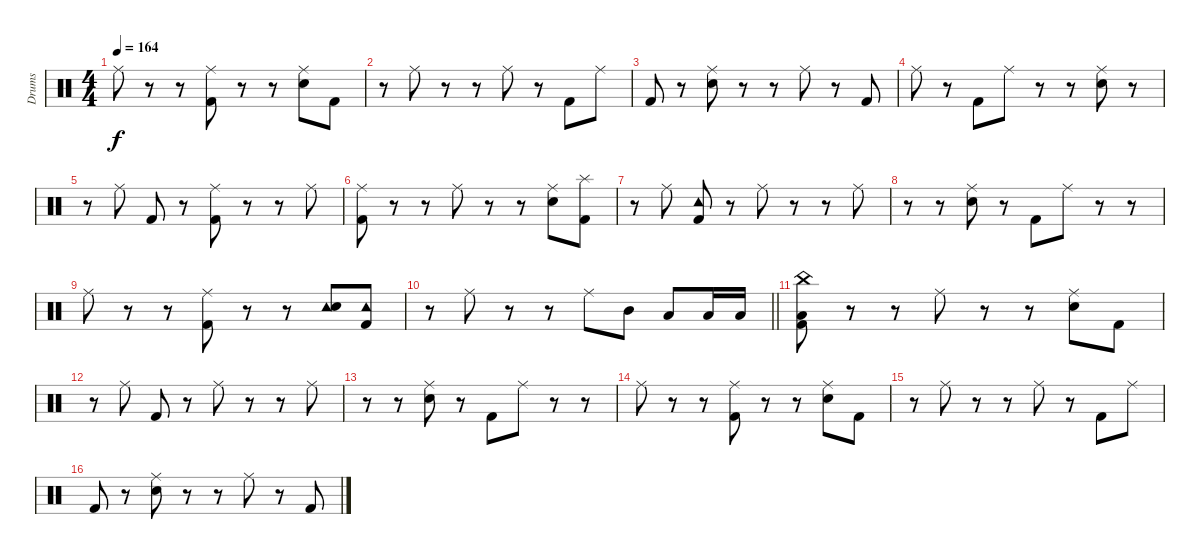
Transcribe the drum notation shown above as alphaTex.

\track ("Drums" "Drums") {instrument percussion}
\staff {score}
\articulation defaults
\ts (4 4)
\tempo 164
\clef neutral
\ks c "Ride (middle)".8{dy f}
r.8 r.8 ("Ride (middle)" "Kick (hit) 2").8 r.8 r.8 ("Ride (middle)" "Electric Snare (hit)").8 "Kick (hit) 2".8 |
r.8 "Ride (middle)".8 r.8 r.8 "Ride (middle)".8 r.8 "Kick (hit) 2".8 "Ride (middle)".8 |
"Kick (hit) 2".8 r.8 ("Ride (middle)" "Electric Snare (hit)").8 r.8 r.8 "Ride (middle)".8 r.8 "Kick (hit) 2".8 |
"Ride (middle)".8 r.8 "Kick (hit) 2".8 "Ride (middle)".8 r.8 r.8 ("Ride (middle)" "Electric Snare (hit)").8 r.8 |
r.8 "Ride (middle)".8 "Kick (hit) 2".8 r.8 ("Ride (middle)" "Kick (hit) 2").8 r.8 r.8 "Ride (middle)".8 |
("Ride (middle)" "Kick (hit) 2").8 r.8 r.8 "Ride (middle)".8 r.8 r.8 ("Ride (middle)" "Electric Snare (hit)").8 ("Splash (hit)" "Kick (hit) 2").8 |
r.8 "Ride (middle)".8 ("Tambourine (hit)" "Kick (hit) 2").8 r.8 "Ride (middle)".8 r.8 r.8 "Ride (middle)".8 |
r.8 r.8 ("Ride (middle)" "Electric Snare (hit)").8 r.8 "Kick (hit) 2".8 "Ride (middle)".8 r.8 r.8 |
"Ride (middle)".8 r.8 r.8 ("Ride (middle)" "Kick (hit) 2").8 r.8 r.8 ("Tambourine (hit)" "Electric Snare (hit)").8 ("Tambourine (hit)" "Kick (hit) 2").8 |
\barLineRight lightlight
r.8 "Ride (middle)".8 r.8 r.8 "Ride (middle)".8 "Mid Tom (hit)".8 "Low Tom (hit)".8 "Low Floor Tom (hit)".16 "Low Floor Tom (hit)".16 |
\section ("" "")
("China (hit)" "Low Floor Tom (hit)" "Kick (hit) 2").8 r.8 r.8 "Ride (middle)".8 r.8 r.8 ("Ride (middle)" "Electric Snare (hit)").8 "Kick (hit) 2".8 |
r.8 "Ride (middle)".8 "Kick (hit) 2".8 r.8 "Ride (middle)".8 r.8 r.8 "Ride (middle)".8 |
r.8 r.8 ("Ride (middle)" "Electric Snare (hit)").8 r.8 "Kick (hit) 2".8 "Ride (middle)".8 r.8 r.8 |
"Ride (middle)".8 r.8 r.8 ("Ride (middle)" "Kick (hit) 2").8 r.8 r.8 ("Ride (middle)" "Electric Snare (hit)").8 "Kick (hit) 2".8 |
r.8 "Ride (middle)".8 r.8 r.8 "Ride (middle)".8 r.8 "Kick (hit) 2".8 "Ride (middle)".8 |
"Kick (hit) 2".8 r.8 ("Ride (middle)" "Electric Snare (hit)").8 r.8 r.8 "Ride (middle)".8 r.8 "Kick (hit) 2".8
